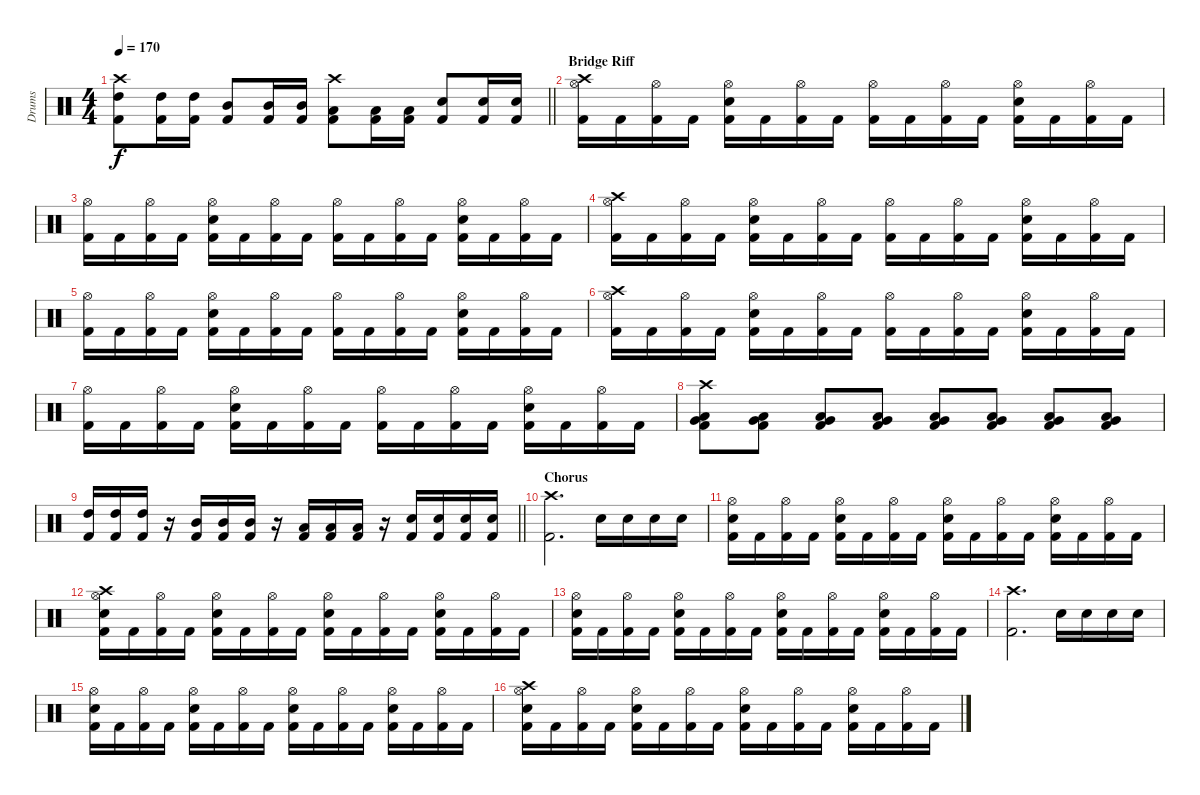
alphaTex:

\track ("Drums" "Drums") {instrument percussion}
\staff {score}
\articulation defaults
\ts (4 4)
\tempo 170
\clef neutral
\barLineRight lightlight
\ks c
("Crash high (hit)" "High Tom (hit)" "Kick (hit) 2").8{dy f} ("High Tom (hit)" "Kick (hit) 2").16 ("High Tom (hit)" "Kick (hit) 2").16 ("Mid Tom (hit)" "Kick (hit) 2").8 ("Mid Tom (hit)" "Kick (hit) 2").16 ("Mid Tom (hit)" "Kick (hit) 2").16 ("Crash high (hit)" "Low Tom (hit)" "Kick (hit) 2").8 ("Low Tom (hit)" "Kick (hit) 2").16 ("Low Tom (hit)" "Kick (hit) 2").16 ("Snare (hit) 2" "Kick (hit) 2").8 ("Snare (hit) 2" "Kick (hit) 2").16 ("Snare (hit) 2" "Kick (hit) 2").16 |
\section ("" "Bridge Riff")
("Crash high (hit)" "Hi-Hat (open)" "Kick (hit) 2").16 "Kick (hit) 2".16 ("Hi-Hat (open)" "Kick (hit) 2").16 "Kick (hit) 2".16 ("Hi-Hat (open)" "Snare (hit) 2" "Kick (hit) 2").16 "Kick (hit) 2".16 ("Hi-Hat (open)" "Kick (hit) 2").16 "Kick (hit) 2".16 ("Hi-Hat (open)" "Kick (hit) 2").16 "Kick (hit) 2".16 ("Hi-Hat (open)" "Kick (hit) 2").16 "Kick (hit) 2".16 ("Hi-Hat (open)" "Snare (hit) 2" "Kick (hit) 2").16 "Kick (hit) 2".16 ("Hi-Hat (open)" "Kick (hit) 2").16 "Kick (hit) 2".16 |
("Hi-Hat (open)" "Kick (hit) 2").16 "Kick (hit) 2".16 ("Hi-Hat (open)" "Kick (hit) 2").16 "Kick (hit) 2".16 ("Hi-Hat (open)" "Snare (hit) 2" "Kick (hit) 2").16 "Kick (hit) 2".16 ("Hi-Hat (open)" "Kick (hit) 2").16 "Kick (hit) 2".16 ("Hi-Hat (open)" "Kick (hit) 2").16 "Kick (hit) 2".16 ("Hi-Hat (open)" "Kick (hit) 2").16 "Kick (hit) 2".16 ("Hi-Hat (open)" "Snare (hit) 2" "Kick (hit) 2").16 "Kick (hit) 2".16 ("Hi-Hat (open)" "Kick (hit) 2").16 "Kick (hit) 2".16 |
("Crash high (hit)" "Hi-Hat (open)" "Kick (hit) 2").16 "Kick (hit) 2".16 ("Hi-Hat (open)" "Kick (hit) 2").16 "Kick (hit) 2".16 ("Hi-Hat (open)" "Snare (hit) 2" "Kick (hit) 2").16 "Kick (hit) 2".16 ("Hi-Hat (open)" "Kick (hit) 2").16 "Kick (hit) 2".16 ("Hi-Hat (open)" "Kick (hit) 2").16 "Kick (hit) 2".16 ("Hi-Hat (open)" "Kick (hit) 2").16 "Kick (hit) 2".16 ("Hi-Hat (open)" "Snare (hit) 2" "Kick (hit) 2").16 "Kick (hit) 2".16 ("Hi-Hat (open)" "Kick (hit) 2").16 "Kick (hit) 2".16 |
("Hi-Hat (open)" "Kick (hit) 2").16 "Kick (hit) 2".16 ("Hi-Hat (open)" "Kick (hit) 2").16 "Kick (hit) 2".16 ("Hi-Hat (open)" "Snare (hit) 2" "Kick (hit) 2").16 "Kick (hit) 2".16 ("Hi-Hat (open)" "Kick (hit) 2").16 "Kick (hit) 2".16 ("Hi-Hat (open)" "Kick (hit) 2").16 "Kick (hit) 2".16 ("Hi-Hat (open)" "Kick (hit) 2").16 "Kick (hit) 2".16 ("Hi-Hat (open)" "Snare (hit) 2" "Kick (hit) 2").16 "Kick (hit) 2".16 ("Hi-Hat (open)" "Kick (hit) 2").16 "Kick (hit) 2".16 |
("Crash high (hit)" "Hi-Hat (open)" "Kick (hit) 2").16 "Kick (hit) 2".16 ("Hi-Hat (open)" "Kick (hit) 2").16 "Kick (hit) 2".16 ("Hi-Hat (open)" "Snare (hit) 2" "Kick (hit) 2").16 "Kick (hit) 2".16 ("Hi-Hat (open)" "Kick (hit) 2").16 "Kick (hit) 2".16 ("Hi-Hat (open)" "Kick (hit) 2").16 "Kick (hit) 2".16 ("Hi-Hat (open)" "Kick (hit) 2").16 "Kick (hit) 2".16 ("Hi-Hat (open)" "Snare (hit) 2" "Kick (hit) 2").16 "Kick (hit) 2".16 ("Hi-Hat (open)" "Kick (hit) 2").16 "Kick (hit) 2".16 |
("Hi-Hat (open)" "Kick (hit) 2").16 "Kick (hit) 2".16 ("Hi-Hat (open)" "Kick (hit) 2").16 "Kick (hit) 2".16 ("Hi-Hat (open)" "Snare (hit) 2" "Kick (hit) 2").16 "Kick (hit) 2".16 ("Hi-Hat (open)" "Kick (hit) 2").16 "Kick (hit) 2".16 ("Hi-Hat (open)" "Kick (hit) 2").16 "Kick (hit) 2".16 ("Hi-Hat (open)" "Kick (hit) 2").16 "Kick (hit) 2".16 ("Hi-Hat (open)" "Snare (hit) 2" "Kick (hit) 2").16 "Kick (hit) 2".16 ("Hi-Hat (open)" "Kick (hit) 2").16 "Kick (hit) 2".16 |
("Crash high (hit)" "Low Tom (hit)" "Very Low Tom (hit)" "Kick (hit) 2").8 ("Low Tom (hit)" "Very Low Tom (hit)" "Kick (hit) 2").8 ("Low Tom (hit)" "Very Low Tom (hit)" "Kick (hit) 2").8 ("Low Tom (hit)" "Very Low Tom (hit)" "Kick (hit) 2").8 ("Low Tom (hit)" "Very Low Tom (hit)" "Kick (hit) 2").8 ("Low Tom (hit)" "Very Low Tom (hit)" "Kick (hit) 2").8 ("Low Tom (hit)" "Very Low Tom (hit)" "Kick (hit) 2").8 ("Low Tom (hit)" "Very Low Tom (hit)" "Kick (hit) 2").8 |
\barLineRight lightlight
("High Tom (hit)" "Kick (hit) 2").16 ("High Tom (hit)" "Kick (hit) 2").16 ("High Tom (hit)" "Kick (hit) 2").16 r.16 ("Mid Tom (hit)" "Kick (hit) 2").16 ("Mid Tom (hit)" "Kick (hit) 2").16 ("Mid Tom (hit)" "Kick (hit) 2").16 r.16 ("Low Tom (hit)" "Kick (hit) 2").16 ("Low Tom (hit)" "Kick (hit) 2").16 ("Low Tom (hit)" "Kick (hit) 2").16 r.16 ("Snare (hit) 2" "Kick (hit) 2").16 ("Snare (hit) 2" "Kick (hit) 2").16 ("Snare (hit) 2" "Kick (hit) 2").16 ("Snare (hit) 2" "Kick (hit) 2").16 |
\section ("" "Chorus")
("Crash high (hit)" "Kick (hit) 2").2{d} "Snare (hit) 2".16 "Snare (hit) 2".16 "Snare (hit) 2".16 "Snare (hit) 2".16 |
("Hi-Hat (open)" "Snare (hit) 2" "Kick (hit) 2").16 "Kick (hit) 2".16 ("Hi-Hat (open)" "Kick (hit) 2").16 "Kick (hit) 2".16 ("Hi-Hat (open)" "Snare (hit) 2" "Kick (hit) 2").16 "Kick (hit) 2".16 ("Hi-Hat (open)" "Kick (hit) 2").16 "Kick (hit) 2".16 ("Hi-Hat (open)" "Snare (hit) 2" "Kick (hit) 2").16 "Kick (hit) 2".16 ("Hi-Hat (open)" "Kick (hit) 2").16 "Kick (hit) 2".16 ("Hi-Hat (open)" "Snare (hit) 2" "Kick (hit) 2").16 "Kick (hit) 2".16 ("Hi-Hat (open)" "Kick (hit) 2").16 "Kick (hit) 2".16 |
("Crash high (hit)" "Hi-Hat (open)" "Snare (hit) 2" "Kick (hit) 2").16 "Kick (hit) 2".16 ("Hi-Hat (open)" "Kick (hit) 2").16 "Kick (hit) 2".16 ("Hi-Hat (open)" "Snare (hit) 2" "Kick (hit) 2").16 "Kick (hit) 2".16 ("Hi-Hat (open)" "Kick (hit) 2").16 "Kick (hit) 2".16 ("Hi-Hat (open)" "Snare (hit) 2" "Kick (hit) 2").16 "Kick (hit) 2".16 ("Hi-Hat (open)" "Kick (hit) 2").16 "Kick (hit) 2".16 ("Hi-Hat (open)" "Snare (hit) 2" "Kick (hit) 2").16 "Kick (hit) 2".16 ("Hi-Hat (open)" "Kick (hit) 2").16 "Kick (hit) 2".16 |
("Hi-Hat (open)" "Snare (hit) 2" "Kick (hit) 2").16 "Kick (hit) 2".16 ("Hi-Hat (open)" "Kick (hit) 2").16 "Kick (hit) 2".16 ("Hi-Hat (open)" "Snare (hit) 2" "Kick (hit) 2").16 "Kick (hit) 2".16 ("Hi-Hat (open)" "Kick (hit) 2").16 "Kick (hit) 2".16 ("Hi-Hat (open)" "Snare (hit) 2" "Kick (hit) 2").16 "Kick (hit) 2".16 ("Hi-Hat (open)" "Kick (hit) 2").16 "Kick (hit) 2".16 ("Hi-Hat (open)" "Snare (hit) 2" "Kick (hit) 2").16 "Kick (hit) 2".16 ("Hi-Hat (open)" "Kick (hit) 2").16 "Kick (hit) 2".16 |
("Crash high (hit)" "Kick (hit) 2").2{d} "Snare (hit) 2".16 "Snare (hit) 2".16 "Snare (hit) 2".16 "Snare (hit) 2".16 |
("Hi-Hat (open)" "Snare (hit) 2" "Kick (hit) 2").16 "Kick (hit) 2".16 ("Hi-Hat (open)" "Kick (hit) 2").16 "Kick (hit) 2".16 ("Hi-Hat (open)" "Snare (hit) 2" "Kick (hit) 2").16 "Kick (hit) 2".16 ("Hi-Hat (open)" "Kick (hit) 2").16 "Kick (hit) 2".16 ("Hi-Hat (open)" "Snare (hit) 2" "Kick (hit) 2").16 "Kick (hit) 2".16 ("Hi-Hat (open)" "Kick (hit) 2").16 "Kick (hit) 2".16 ("Hi-Hat (open)" "Snare (hit) 2" "Kick (hit) 2").16 "Kick (hit) 2".16 ("Hi-Hat (open)" "Kick (hit) 2").16 "Kick (hit) 2".16 |
("Crash high (hit)" "Hi-Hat (open)" "Snare (hit) 2" "Kick (hit) 2").16 "Kick (hit) 2".16 ("Hi-Hat (open)" "Kick (hit) 2").16 "Kick (hit) 2".16 ("Hi-Hat (open)" "Snare (hit) 2" "Kick (hit) 2").16 "Kick (hit) 2".16 ("Hi-Hat (open)" "Kick (hit) 2").16 "Kick (hit) 2".16 ("Hi-Hat (open)" "Snare (hit) 2" "Kick (hit) 2").16 "Kick (hit) 2".16 ("Hi-Hat (open)" "Kick (hit) 2").16 "Kick (hit) 2".16 ("Hi-Hat (open)" "Snare (hit) 2" "Kick (hit) 2").16 "Kick (hit) 2".16 ("Hi-Hat (open)" "Kick (hit) 2").16 "Kick (hit) 2".16
